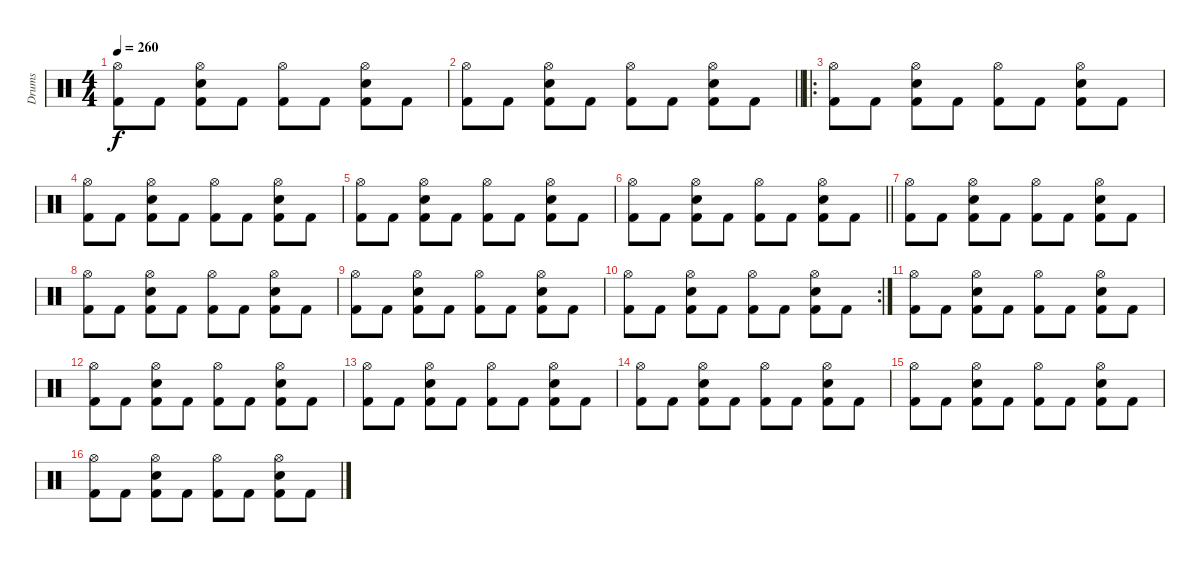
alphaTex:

\track ("Drums" "Drums") {instrument percussion}
\staff {score}
\articulation defaults
\ts (4 4)
\tempo 260
\clef neutral
\ks c
("Hi-Hat (open)" "Kick (hit) 2").8{dy f} "Kick (hit) 2".8 ("Hi-Hat (open)" "Snare (hit) 2" "Kick (hit) 2").8 "Kick (hit) 2".8 ("Hi-Hat (open)" "Kick (hit) 2").8 "Kick (hit) 2".8 ("Hi-Hat (open)" "Snare (hit) 2" "Kick (hit) 2").8 "Kick (hit) 2".8 |
\barLineRight lightlight
("Hi-Hat (open)" "Kick (hit) 2").8 "Kick (hit) 2".8 ("Hi-Hat (open)" "Snare (hit) 2" "Kick (hit) 2").8 "Kick (hit) 2".8 ("Hi-Hat (open)" "Kick (hit) 2").8 "Kick (hit) 2".8 ("Hi-Hat (open)" "Snare (hit) 2" "Kick (hit) 2").8 "Kick (hit) 2".8 |
\ro
("Hi-Hat (open)" "Kick (hit) 2").8 "Kick (hit) 2".8 ("Hi-Hat (open)" "Snare (hit) 2" "Kick (hit) 2").8 "Kick (hit) 2".8 ("Hi-Hat (open)" "Kick (hit) 2").8 "Kick (hit) 2".8 ("Hi-Hat (open)" "Snare (hit) 2" "Kick (hit) 2").8 "Kick (hit) 2".8 |
("Hi-Hat (open)" "Kick (hit) 2").8 "Kick (hit) 2".8 ("Hi-Hat (open)" "Snare (hit) 2" "Kick (hit) 2").8 "Kick (hit) 2".8 ("Hi-Hat (open)" "Kick (hit) 2").8 "Kick (hit) 2".8 ("Hi-Hat (open)" "Snare (hit) 2" "Kick (hit) 2").8 "Kick (hit) 2".8 |
("Hi-Hat (open)" "Kick (hit) 2").8 "Kick (hit) 2".8 ("Hi-Hat (open)" "Snare (hit) 2" "Kick (hit) 2").8 "Kick (hit) 2".8 ("Hi-Hat (open)" "Kick (hit) 2").8 "Kick (hit) 2".8 ("Hi-Hat (open)" "Snare (hit) 2" "Kick (hit) 2").8 "Kick (hit) 2".8 |
\barLineRight lightlight
("Hi-Hat (open)" "Kick (hit) 2").8 "Kick (hit) 2".8 ("Hi-Hat (open)" "Snare (hit) 2" "Kick (hit) 2").8 "Kick (hit) 2".8 ("Hi-Hat (open)" "Kick (hit) 2").8 "Kick (hit) 2".8 ("Hi-Hat (open)" "Snare (hit) 2" "Kick (hit) 2").8 "Kick (hit) 2".8 |
("Hi-Hat (open)" "Kick (hit) 2").8 "Kick (hit) 2".8 ("Hi-Hat (open)" "Snare (hit) 2" "Kick (hit) 2").8 "Kick (hit) 2".8 ("Hi-Hat (open)" "Kick (hit) 2").8 "Kick (hit) 2".8 ("Hi-Hat (open)" "Snare (hit) 2" "Kick (hit) 2").8 "Kick (hit) 2".8 |
("Hi-Hat (open)" "Kick (hit) 2").8 "Kick (hit) 2".8 ("Hi-Hat (open)" "Snare (hit) 2" "Kick (hit) 2").8 "Kick (hit) 2".8 ("Hi-Hat (open)" "Kick (hit) 2").8 "Kick (hit) 2".8 ("Hi-Hat (open)" "Snare (hit) 2" "Kick (hit) 2").8 "Kick (hit) 2".8 |
("Hi-Hat (open)" "Kick (hit) 2").8 "Kick (hit) 2".8 ("Hi-Hat (open)" "Snare (hit) 2" "Kick (hit) 2").8 "Kick (hit) 2".8 ("Hi-Hat (open)" "Kick (hit) 2").8 "Kick (hit) 2".8 ("Hi-Hat (open)" "Snare (hit) 2" "Kick (hit) 2").8 "Kick (hit) 2".8 |
\rc 2
("Hi-Hat (open)" "Kick (hit) 2").8 "Kick (hit) 2".8 ("Hi-Hat (open)" "Snare (hit) 2" "Kick (hit) 2").8 "Kick (hit) 2".8 ("Hi-Hat (open)" "Kick (hit) 2").8 "Kick (hit) 2".8 ("Hi-Hat (open)" "Snare (hit) 2" "Kick (hit) 2").8 "Kick (hit) 2".8 |
("Hi-Hat (open)" "Kick (hit) 2").8 "Kick (hit) 2".8 ("Hi-Hat (open)" "Snare (hit) 2" "Kick (hit) 2").8 "Kick (hit) 2".8 ("Hi-Hat (open)" "Kick (hit) 2").8 "Kick (hit) 2".8 ("Hi-Hat (open)" "Snare (hit) 2" "Kick (hit) 2").8 "Kick (hit) 2".8 |
("Hi-Hat (open)" "Kick (hit) 2").8 "Kick (hit) 2".8 ("Hi-Hat (open)" "Snare (hit) 2" "Kick (hit) 2").8 "Kick (hit) 2".8 ("Hi-Hat (open)" "Kick (hit) 2").8 "Kick (hit) 2".8 ("Hi-Hat (open)" "Snare (hit) 2" "Kick (hit) 2").8 "Kick (hit) 2".8 |
("Hi-Hat (open)" "Kick (hit) 2").8 "Kick (hit) 2".8 ("Hi-Hat (open)" "Snare (hit) 2" "Kick (hit) 2").8 "Kick (hit) 2".8 ("Hi-Hat (open)" "Kick (hit) 2").8 "Kick (hit) 2".8 ("Hi-Hat (open)" "Snare (hit) 2" "Kick (hit) 2").8 "Kick (hit) 2".8 |
("Hi-Hat (open)" "Kick (hit) 2").8 "Kick (hit) 2".8 ("Hi-Hat (open)" "Snare (hit) 2" "Kick (hit) 2").8 "Kick (hit) 2".8 ("Hi-Hat (open)" "Kick (hit) 2").8 "Kick (hit) 2".8 ("Hi-Hat (open)" "Snare (hit) 2" "Kick (hit) 2").8 "Kick (hit) 2".8 |
("Hi-Hat (open)" "Kick (hit) 2").8 "Kick (hit) 2".8 ("Hi-Hat (open)" "Snare (hit) 2" "Kick (hit) 2").8 "Kick (hit) 2".8 ("Hi-Hat (open)" "Kick (hit) 2").8 "Kick (hit) 2".8 ("Hi-Hat (open)" "Snare (hit) 2" "Kick (hit) 2").8 "Kick (hit) 2".8 |
("Hi-Hat (open)" "Kick (hit) 2").8 "Kick (hit) 2".8 ("Hi-Hat (open)" "Snare (hit) 2" "Kick (hit) 2").8 "Kick (hit) 2".8 ("Hi-Hat (open)" "Kick (hit) 2").8 "Kick (hit) 2".8 ("Hi-Hat (open)" "Snare (hit) 2" "Kick (hit) 2").8 "Kick (hit) 2".8
